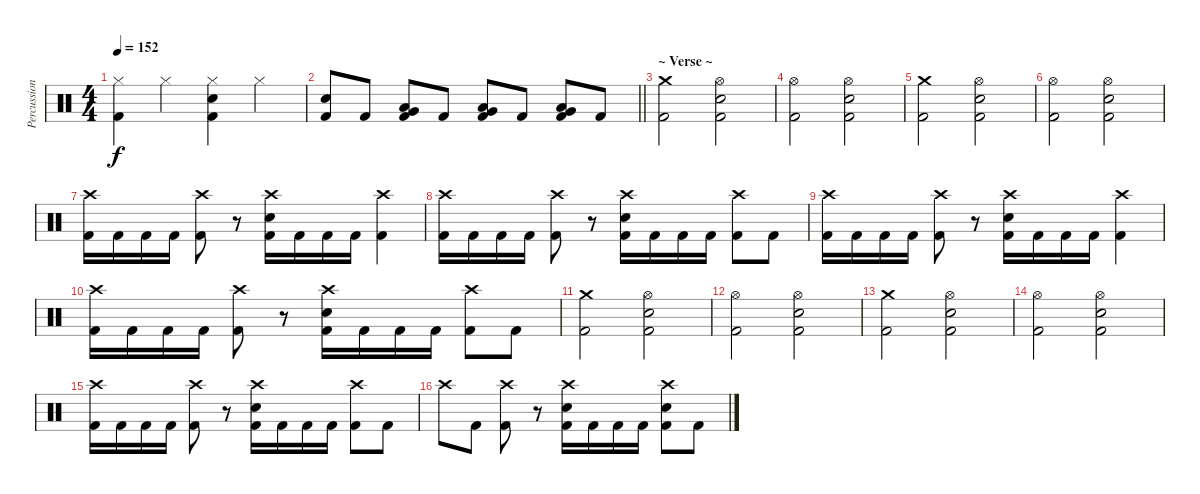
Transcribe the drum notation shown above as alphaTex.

\track ("Percussion" "Percussion") {instrument percussion}
\staff {score}
\articulation defaults
\ts (4 4)
\tempo 152
\clef neutral
\ks c
("Hi-Hat (closed)" "Kick (hit) 2").4{dy f} "Hi-Hat (closed)".4 ("Hi-Hat (closed)" "Electric Snare (hit)" "Kick (hit) 2").4 "Hi-Hat (closed)".4 |
\barLineRight lightlight
("Electric Snare (hit)" "Kick (hit) 2").8 "Kick (hit) 2".8 ("Low Tom (hit)" "Very Low Tom (hit)" "Kick (hit) 2").8 "Kick (hit) 2".8 ("Low Tom (hit)" "Very Low Tom (hit)" "Kick (hit) 2").8 "Kick (hit) 2".8 ("Very Low Tom (hit)" "Low Floor Tom (hit)" "Kick (hit) 2").8 "Kick (hit) 2".8 |
\section ("" "~ Verse ~")
("Crash medium (hit)" "Kick (hit) 2").2 ("Hi-Hat (open)" "Electric Snare (hit)" "Kick (hit) 2").2 |
("Hi-Hat (open)" "Kick (hit) 2").2 ("Hi-Hat (open)" "Electric Snare (hit)" "Kick (hit) 2").2 |
("Crash medium (hit)" "Kick (hit) 2").2 ("Hi-Hat (open)" "Electric Snare (hit)" "Kick (hit) 2").2 |
("Hi-Hat (open)" "Kick (hit) 2").2 ("Hi-Hat (open)" "Electric Snare (hit)" "Kick (hit) 2").2 |
("Crash high (hit)" "Kick (hit) 2").16 "Kick (hit) 2".16 "Kick (hit) 2".16 "Kick (hit) 2".16 ("Crash high (hit)" "Kick (hit) 2").8 r.8 ("Crash high (hit)" "Electric Snare (hit)" "Kick (hit) 2").16 "Kick (hit) 2".16 "Kick (hit) 2".16 "Kick (hit) 2".16 ("Crash high (hit)" "Kick (hit) 2").4 |
("Crash high (hit)" "Kick (hit) 2").16 "Kick (hit) 2".16 "Kick (hit) 2".16 "Kick (hit) 2".16 ("Crash high (hit)" "Kick (hit) 2").8 r.8 ("Crash high (hit)" "Electric Snare (hit)" "Kick (hit) 2").16 "Kick (hit) 2".16 "Kick (hit) 2".16 "Kick (hit) 2".16 ("Crash high (hit)" "Kick (hit) 2").8 "Kick (hit) 2".8 |
("Crash high (hit)" "Kick (hit) 2").16 "Kick (hit) 2".16 "Kick (hit) 2".16 "Kick (hit) 2".16 ("Crash high (hit)" "Kick (hit) 2").8 r.8 ("Crash high (hit)" "Electric Snare (hit)" "Kick (hit) 2").16 "Kick (hit) 2".16 "Kick (hit) 2".16 "Kick (hit) 2".16 ("Crash high (hit)" "Kick (hit) 2").4 |
("Crash high (hit)" "Kick (hit) 2").16 "Kick (hit) 2".16 "Kick (hit) 2".16 "Kick (hit) 2".16 ("Crash high (hit)" "Kick (hit) 2").8 r.8 ("Crash high (hit)" "Electric Snare (hit)" "Kick (hit) 2").16 "Kick (hit) 2".16 "Kick (hit) 2".16 "Kick (hit) 2".16 ("Crash high (hit)" "Kick (hit) 2").8 "Kick (hit) 2".8 |
("Crash medium (hit)" "Kick (hit) 2").2 ("Hi-Hat (open)" "Electric Snare (hit)" "Kick (hit) 2").2 |
("Hi-Hat (open)" "Kick (hit) 2").2 ("Hi-Hat (open)" "Electric Snare (hit)" "Kick (hit) 2").2 |
("Crash medium (hit)" "Kick (hit) 2").2 ("Hi-Hat (open)" "Electric Snare (hit)" "Kick (hit) 2").2 |
("Hi-Hat (open)" "Kick (hit) 2").2 ("Hi-Hat (open)" "Electric Snare (hit)" "Kick (hit) 2").2 |
("Crash high (hit)" "Kick (hit) 2").16 "Kick (hit) 2".16 "Kick (hit) 2".16 "Kick (hit) 2".16 ("Crash high (hit)" "Kick (hit) 2").8 r.8 ("Crash high (hit)" "Electric Snare (hit)" "Kick (hit) 2").16 "Kick (hit) 2".16 "Kick (hit) 2".16 "Kick (hit) 2".16 ("Crash high (hit)" "Kick (hit) 2").8 "Kick (hit) 2".8 |
"Crash high (hit)".8 "Kick (hit) 2".8 ("Crash high (hit)" "Kick (hit) 2").8 r.8 ("Crash high (hit)" "Electric Snare (hit)" "Kick (hit) 2").16 "Kick (hit) 2".16 "Kick (hit) 2".16 "Kick (hit) 2".16 ("Crash high (hit)" "Electric Snare (hit)" "Kick (hit) 2").8 "Kick (hit) 2".8
